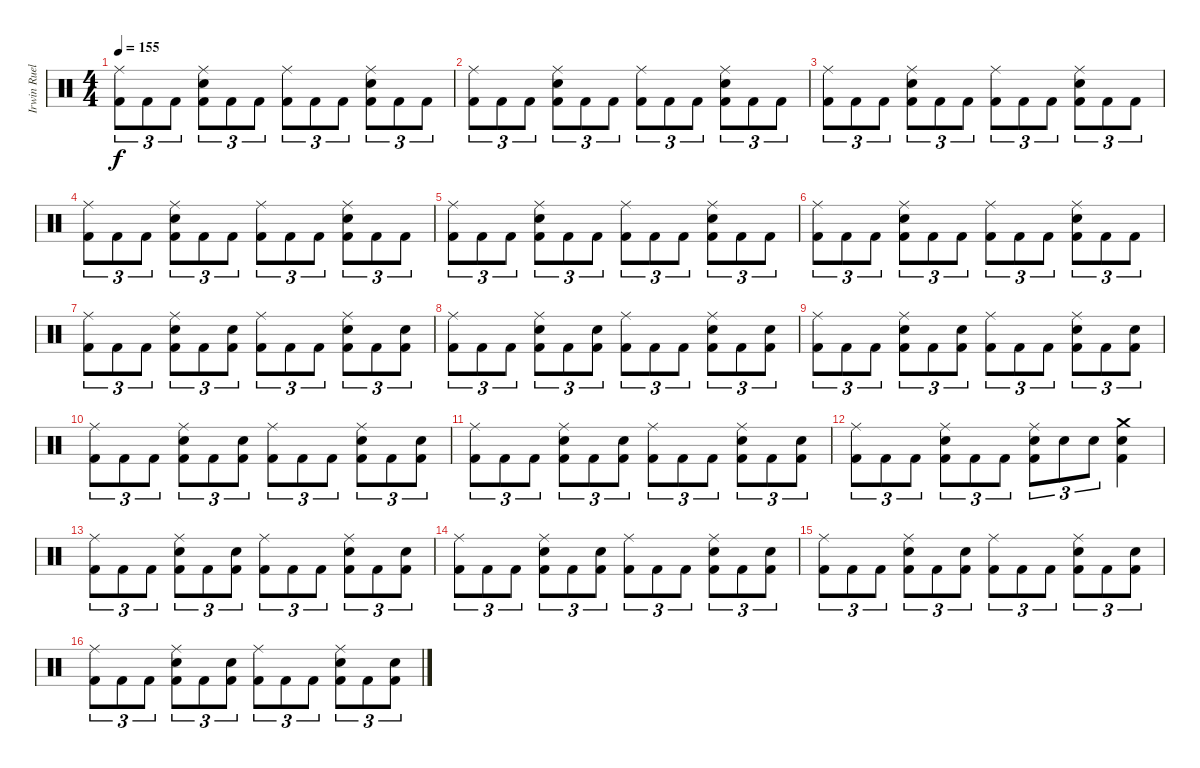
\track ("Irwin Ruelas" "Irwin Ruel") {instrument percussion}
\staff {score}
\articulation defaults
\ts (4 4)
\tempo 155
\clef neutral
\ks c
("Ride (middle)" "Kick (hit) 2").8{tu (3 2) dy f} "Kick (hit) 2".8{tu (3 2)} "Kick (hit) 2".8{tu (3 2)} ("Ride (middle)" "Electric Snare (hit)" "Kick (hit) 2").8{tu (3 2)} "Kick (hit) 2".8{tu (3 2)} "Kick (hit) 2".8{tu (3 2)} ("Ride (middle)" "Kick (hit) 2").8{tu (3 2)} "Kick (hit) 2".8{tu (3 2)} "Kick (hit) 2".8{tu (3 2)} ("Ride (middle)" "Electric Snare (hit)" "Kick (hit) 2").8{tu (3 2)} "Kick (hit) 2".8{tu (3 2)} "Kick (hit) 2".8{tu (3 2)} |
("Ride (middle)" "Kick (hit) 2").8{tu (3 2)} "Kick (hit) 2".8{tu (3 2)} "Kick (hit) 2".8{tu (3 2)} ("Ride (middle)" "Electric Snare (hit)" "Kick (hit) 2").8{tu (3 2)} "Kick (hit) 2".8{tu (3 2)} "Kick (hit) 2".8{tu (3 2)} ("Ride (middle)" "Kick (hit) 2").8{tu (3 2)} "Kick (hit) 2".8{tu (3 2)} "Kick (hit) 2".8{tu (3 2)} ("Ride (middle)" "Electric Snare (hit)" "Kick (hit) 2").8{tu (3 2)} "Kick (hit) 2".8{tu (3 2)} "Kick (hit) 2".8{tu (3 2)} |
("Ride (middle)" "Kick (hit) 2").8{tu (3 2)} "Kick (hit) 2".8{tu (3 2)} "Kick (hit) 2".8{tu (3 2)} ("Ride (middle)" "Electric Snare (hit)" "Kick (hit) 2").8{tu (3 2)} "Kick (hit) 2".8{tu (3 2)} "Kick (hit) 2".8{tu (3 2)} ("Ride (middle)" "Kick (hit) 2").8{tu (3 2)} "Kick (hit) 2".8{tu (3 2)} "Kick (hit) 2".8{tu (3 2)} ("Ride (middle)" "Electric Snare (hit)" "Kick (hit) 2").8{tu (3 2)} "Kick (hit) 2".8{tu (3 2)} "Kick (hit) 2".8{tu (3 2)} |
("Ride (middle)" "Kick (hit) 2").8{tu (3 2)} "Kick (hit) 2".8{tu (3 2)} "Kick (hit) 2".8{tu (3 2)} ("Ride (middle)" "Electric Snare (hit)" "Kick (hit) 2").8{tu (3 2)} "Kick (hit) 2".8{tu (3 2)} "Kick (hit) 2".8{tu (3 2)} ("Ride (middle)" "Kick (hit) 2").8{tu (3 2)} "Kick (hit) 2".8{tu (3 2)} "Kick (hit) 2".8{tu (3 2)} ("Ride (middle)" "Electric Snare (hit)" "Kick (hit) 2").8{tu (3 2)} "Kick (hit) 2".8{tu (3 2)} "Kick (hit) 2".8{tu (3 2)} |
("Ride (middle)" "Kick (hit) 2").8{tu (3 2)} "Kick (hit) 2".8{tu (3 2)} "Kick (hit) 2".8{tu (3 2)} ("Ride (middle)" "Electric Snare (hit)" "Kick (hit) 2").8{tu (3 2)} "Kick (hit) 2".8{tu (3 2)} "Kick (hit) 2".8{tu (3 2)} ("Ride (middle)" "Kick (hit) 2").8{tu (3 2)} "Kick (hit) 2".8{tu (3 2)} "Kick (hit) 2".8{tu (3 2)} ("Ride (middle)" "Electric Snare (hit)" "Kick (hit) 2").8{tu (3 2)} "Kick (hit) 2".8{tu (3 2)} "Kick (hit) 2".8{tu (3 2)} |
("Ride (middle)" "Kick (hit) 2").8{tu (3 2)} "Kick (hit) 2".8{tu (3 2)} "Kick (hit) 2".8{tu (3 2)} ("Ride (middle)" "Electric Snare (hit)" "Kick (hit) 2").8{tu (3 2)} "Kick (hit) 2".8{tu (3 2)} "Kick (hit) 2".8{tu (3 2)} ("Ride (middle)" "Kick (hit) 2").8{tu (3 2)} "Kick (hit) 2".8{tu (3 2)} "Kick (hit) 2".8{tu (3 2)} ("Ride (middle)" "Electric Snare (hit)" "Kick (hit) 2").8{tu (3 2)} "Kick (hit) 2".8{tu (3 2)} "Kick (hit) 2".8{tu (3 2)} |
("Ride (middle)" "Kick (hit) 2").8{tu (3 2)} "Kick (hit) 2".8{tu (3 2)} "Kick (hit) 2".8{tu (3 2)} ("Ride (middle)" "Electric Snare (hit)" "Kick (hit) 2").8{tu (3 2)} "Kick (hit) 2".8{tu (3 2)} ("Electric Snare (hit)" "Kick (hit) 2").8{tu (3 2)} ("Ride (middle)" "Kick (hit) 2").8{tu (3 2)} "Kick (hit) 2".8{tu (3 2)} "Kick (hit) 2".8{tu (3 2)} ("Ride (middle)" "Electric Snare (hit)" "Kick (hit) 2").8{tu (3 2)} "Kick (hit) 2".8{tu (3 2)} ("Electric Snare (hit)" "Kick (hit) 2").8{tu (3 2)} |
("Ride (middle)" "Kick (hit) 2").8{tu (3 2)} "Kick (hit) 2".8{tu (3 2)} "Kick (hit) 2".8{tu (3 2)} ("Ride (middle)" "Electric Snare (hit)" "Kick (hit) 2").8{tu (3 2)} "Kick (hit) 2".8{tu (3 2)} ("Electric Snare (hit)" "Kick (hit) 2").8{tu (3 2)} ("Ride (middle)" "Kick (hit) 2").8{tu (3 2)} "Kick (hit) 2".8{tu (3 2)} "Kick (hit) 2".8{tu (3 2)} ("Ride (middle)" "Electric Snare (hit)" "Kick (hit) 2").8{tu (3 2)} "Kick (hit) 2".8{tu (3 2)} ("Electric Snare (hit)" "Kick (hit) 2").8{tu (3 2)} |
("Ride (middle)" "Kick (hit) 2").8{tu (3 2)} "Kick (hit) 2".8{tu (3 2)} "Kick (hit) 2".8{tu (3 2)} ("Ride (middle)" "Electric Snare (hit)" "Kick (hit) 2").8{tu (3 2)} "Kick (hit) 2".8{tu (3 2)} ("Electric Snare (hit)" "Kick (hit) 2").8{tu (3 2)} ("Ride (middle)" "Kick (hit) 2").8{tu (3 2)} "Kick (hit) 2".8{tu (3 2)} "Kick (hit) 2".8{tu (3 2)} ("Ride (middle)" "Electric Snare (hit)" "Kick (hit) 2").8{tu (3 2)} "Kick (hit) 2".8{tu (3 2)} ("Electric Snare (hit)" "Kick (hit) 2").8{tu (3 2)} |
("Ride (middle)" "Kick (hit) 2").8{tu (3 2)} "Kick (hit) 2".8{tu (3 2)} "Kick (hit) 2".8{tu (3 2)} ("Ride (middle)" "Electric Snare (hit)" "Kick (hit) 2").8{tu (3 2)} "Kick (hit) 2".8{tu (3 2)} ("Electric Snare (hit)" "Kick (hit) 2").8{tu (3 2)} ("Ride (middle)" "Kick (hit) 2").8{tu (3 2)} "Kick (hit) 2".8{tu (3 2)} "Kick (hit) 2".8{tu (3 2)} ("Ride (middle)" "Electric Snare (hit)" "Kick (hit) 2").8{tu (3 2)} "Kick (hit) 2".8{tu (3 2)} ("Electric Snare (hit)" "Kick (hit) 2").8{tu (3 2)} |
("Ride (middle)" "Kick (hit) 2").8{tu (3 2)} "Kick (hit) 2".8{tu (3 2)} "Kick (hit) 2".8{tu (3 2)} ("Ride (middle)" "Electric Snare (hit)" "Kick (hit) 2").8{tu (3 2)} "Kick (hit) 2".8{tu (3 2)} ("Electric Snare (hit)" "Kick (hit) 2").8{tu (3 2)} ("Ride (middle)" "Kick (hit) 2").8{tu (3 2)} "Kick (hit) 2".8{tu (3 2)} "Kick (hit) 2".8{tu (3 2)} ("Ride (middle)" "Electric Snare (hit)" "Kick (hit) 2").8{tu (3 2)} "Kick (hit) 2".8{tu (3 2)} ("Electric Snare (hit)" "Kick (hit) 2").8{tu (3 2)} |
("Ride (middle)" "Kick (hit) 2").8{tu (3 2)} "Kick (hit) 2".8{tu (3 2)} "Kick (hit) 2".8{tu (3 2)} ("Ride (middle)" "Electric Snare (hit)" "Kick (hit) 2").8{tu (3 2)} "Kick (hit) 2".8{tu (3 2)} "Kick (hit) 2".8{tu (3 2)} ("Ride (middle)" "Electric Snare (hit)" "Kick (hit) 2").8{tu (3 2)} "Electric Snare (hit)".8{tu (3 2)} "Electric Snare (hit)".8{tu (3 2)} ("Crash medium (hit)" "Electric Snare (hit)" "Kick (hit) 2").4 |
("Ride (middle)" "Kick (hit) 2").8{tu (3 2)} "Kick (hit) 2".8{tu (3 2)} "Kick (hit) 2".8{tu (3 2)} ("Ride (middle)" "Electric Snare (hit)" "Kick (hit) 2").8{tu (3 2)} "Kick (hit) 2".8{tu (3 2)} ("Electric Snare (hit)" "Kick (hit) 2").8{tu (3 2)} ("Ride (middle)" "Kick (hit) 2").8{tu (3 2)} "Kick (hit) 2".8{tu (3 2)} "Kick (hit) 2".8{tu (3 2)} ("Ride (middle)" "Electric Snare (hit)" "Kick (hit) 2").8{tu (3 2)} "Kick (hit) 2".8{tu (3 2)} ("Electric Snare (hit)" "Kick (hit) 2").8{tu (3 2)} |
("Ride (middle)" "Kick (hit) 2").8{tu (3 2)} "Kick (hit) 2".8{tu (3 2)} "Kick (hit) 2".8{tu (3 2)} ("Ride (middle)" "Electric Snare (hit)" "Kick (hit) 2").8{tu (3 2)} "Kick (hit) 2".8{tu (3 2)} ("Electric Snare (hit)" "Kick (hit) 2").8{tu (3 2)} ("Ride (middle)" "Kick (hit) 2").8{tu (3 2)} "Kick (hit) 2".8{tu (3 2)} "Kick (hit) 2".8{tu (3 2)} ("Ride (middle)" "Electric Snare (hit)" "Kick (hit) 2").8{tu (3 2)} "Kick (hit) 2".8{tu (3 2)} ("Electric Snare (hit)" "Kick (hit) 2").8{tu (3 2)} |
("Ride (middle)" "Kick (hit) 2").8{tu (3 2)} "Kick (hit) 2".8{tu (3 2)} "Kick (hit) 2".8{tu (3 2)} ("Ride (middle)" "Electric Snare (hit)" "Kick (hit) 2").8{tu (3 2)} "Kick (hit) 2".8{tu (3 2)} ("Electric Snare (hit)" "Kick (hit) 2").8{tu (3 2)} ("Ride (middle)" "Kick (hit) 2").8{tu (3 2)} "Kick (hit) 2".8{tu (3 2)} "Kick (hit) 2".8{tu (3 2)} ("Ride (middle)" "Electric Snare (hit)" "Kick (hit) 2").8{tu (3 2)} "Kick (hit) 2".8{tu (3 2)} ("Electric Snare (hit)" "Kick (hit) 2").8{tu (3 2)} |
("Ride (middle)" "Kick (hit) 2").8{tu (3 2)} "Kick (hit) 2".8{tu (3 2)} "Kick (hit) 2".8{tu (3 2)} ("Ride (middle)" "Electric Snare (hit)" "Kick (hit) 2").8{tu (3 2)} "Kick (hit) 2".8{tu (3 2)} ("Electric Snare (hit)" "Kick (hit) 2").8{tu (3 2)} ("Ride (middle)" "Kick (hit) 2").8{tu (3 2)} "Kick (hit) 2".8{tu (3 2)} "Kick (hit) 2".8{tu (3 2)} ("Ride (middle)" "Electric Snare (hit)" "Kick (hit) 2").8{tu (3 2)} "Kick (hit) 2".8{tu (3 2)} ("Electric Snare (hit)" "Kick (hit) 2").8{tu (3 2)}
